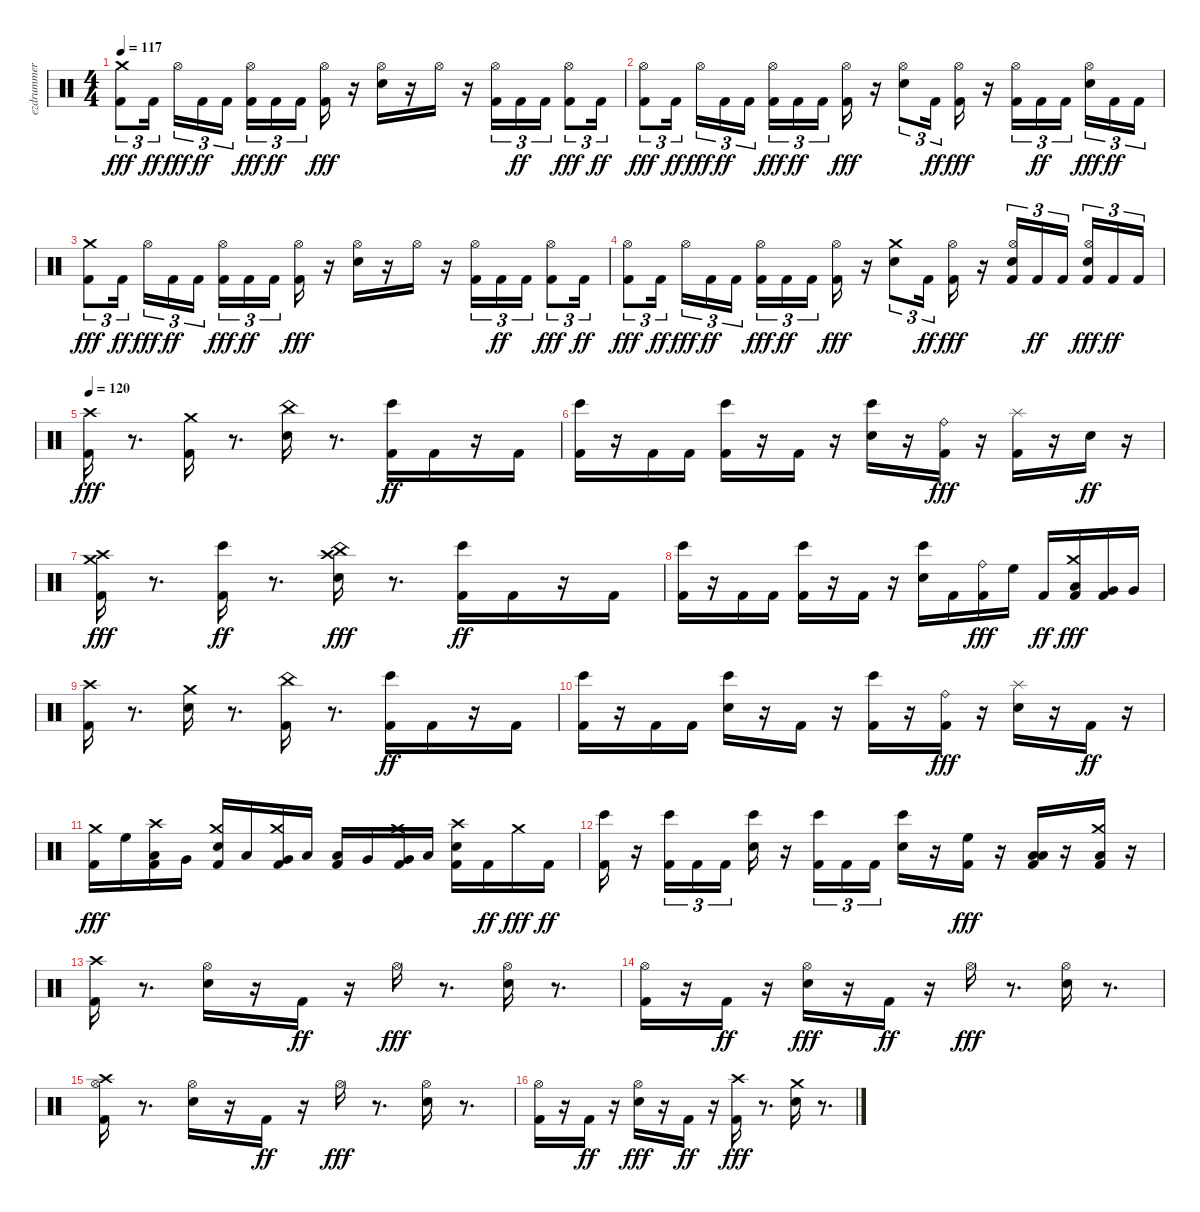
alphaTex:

\track ("ezdrummer 02" "ezdrummer ") {instrument percussion}
\staff {score}
\articulation defaults
\ts (4 4)
\tempo 117
\clef neutral
\ks c
("Kick (hit) 2" "Crash medium (hit)").8{tu (3 2) dy fff} "Kick (hit) 2".16{tu (3 2) dy ff beam splitsecondary} "Hi-Hat (open)".16{tu (3 2) dy fff} "Kick (hit) 2".16{tu (3 2) dy ff} "Kick (hit) 2".16{tu (3 2)} ("Kick (hit) 2" "Hi-Hat (open)").16{tu (3 2) dy fff} "Kick (hit) 2".16{tu (3 2) dy ff} "Kick (hit) 2".16{tu (3 2) beam splitsecondary} ("Kick (hit) 2" "Hi-Hat (open)").16{dy fff} r.16 ("Snare (hit) 2" "Hi-Hat (open)").16 r.16 "Hi-Hat (open)".16 r.16 ("Kick (hit) 2" "Hi-Hat (open)").16{tu (3 2)} "Kick (hit) 2".16{tu (3 2) dy ff} "Kick (hit) 2".16{tu (3 2)} ("Kick (hit) 2" "Hi-Hat (open)").8{tu (3 2) dy fff} "Kick (hit) 2".16{tu (3 2) dy ff} |
("Kick (hit) 2" "Hi-Hat (open)").8{tu (3 2) dy fff} "Kick (hit) 2".16{tu (3 2) dy ff beam splitsecondary} "Hi-Hat (open)".16{tu (3 2) dy fff} "Kick (hit) 2".16{tu (3 2) dy ff} "Kick (hit) 2".16{tu (3 2)} ("Kick (hit) 2" "Hi-Hat (open)").16{tu (3 2) dy fff} "Kick (hit) 2".16{tu (3 2) dy ff} "Kick (hit) 2".16{tu (3 2) beam splitsecondary} ("Kick (hit) 2" "Hi-Hat (open)").16{dy fff} r.16 ("Snare (hit) 2" "Hi-Hat (open)").8{tu (3 2)} "Kick (hit) 2".16{tu (3 2) dy ff} ("Kick (hit) 2" "Hi-Hat (open)").16{dy fff} r.16 ("Kick (hit) 2" "Hi-Hat (open)").16{tu (3 2)} "Kick (hit) 2".16{tu (3 2) dy ff} "Kick (hit) 2".16{tu (3 2) beam splitsecondary} ("Snare (hit) 2" "Hi-Hat (open)").16{tu (3 2) dy fff} "Kick (hit) 2".16{tu (3 2) dy ff} "Kick (hit) 2".16{tu (3 2)} |
("Kick (hit) 2" "Crash medium (hit)").8{tu (3 2) dy fff} "Kick (hit) 2".16{tu (3 2) dy ff beam splitsecondary} "Hi-Hat (open)".16{tu (3 2) dy fff} "Kick (hit) 2".16{tu (3 2) dy ff} "Kick (hit) 2".16{tu (3 2)} ("Kick (hit) 2" "Hi-Hat (open)").16{tu (3 2) dy fff} "Kick (hit) 2".16{tu (3 2) dy ff} "Kick (hit) 2".16{tu (3 2) beam splitsecondary} ("Kick (hit) 2" "Hi-Hat (open)").16{dy fff} r.16 ("Snare (hit) 2" "Hi-Hat (open)").16 r.16 "Hi-Hat (open)".16 r.16 ("Kick (hit) 2" "Hi-Hat (open)").16{tu (3 2)} "Kick (hit) 2".16{tu (3 2) dy ff} "Kick (hit) 2".16{tu (3 2)} ("Kick (hit) 2" "Hi-Hat (open)").8{tu (3 2) dy fff} "Kick (hit) 2".16{tu (3 2) dy ff} |
("Kick (hit) 2" "Hi-Hat (open)").8{tu (3 2) dy fff} "Kick (hit) 2".16{tu (3 2) dy ff beam splitsecondary} "Hi-Hat (open)".16{tu (3 2) dy fff} "Kick (hit) 2".16{tu (3 2) dy ff} "Kick (hit) 2".16{tu (3 2)} ("Kick (hit) 2" "Hi-Hat (open)").16{tu (3 2) dy fff} "Kick (hit) 2".16{tu (3 2) dy ff} "Kick (hit) 2".16{tu (3 2) beam splitsecondary} ("Kick (hit) 2" "Hi-Hat (open)").16{dy fff} r.16 ("Snare (hit) 2" "Crash medium (hit)").8{tu (3 2)} "Kick (hit) 2".16{tu (3 2) dy ff} ("Kick (hit) 2" "Hi-Hat (open)").16{dy fff} r.16 ("Kick (hit) 2" "Snare (hit) 2" "Hi-Hat (open)").16{tu (3 2)} "Kick (hit) 2".16{tu (3 2) dy ff} "Kick (hit) 2".16{tu (3 2) beam splitsecondary} ("Kick (hit) 2" "Snare (hit) 2" "Hi-Hat (open)").16{tu (3 2) dy fff} "Kick (hit) 2".16{tu (3 2) dy ff} "Kick (hit) 2".16{tu (3 2)} |
\tempo 120
("Kick (hit) 2" "Crash high (hit)").16{dy fff} r.8{d} ("Kick (hit) 2" "Crash medium (hit)").16 r.8{d} ("Snare (hit) 2" "China (hit)").16 r.8{d} ("Kick (hit) 2" "Bongo High (hit)").16{dy ff} "Kick (hit) 2".16 r.16 "Kick (hit) 2".16 |
("Kick (hit) 2" "Bongo High (hit)").16 r.16 "Kick (hit) 2".16 "Kick (hit) 2".16 ("Kick (hit) 2" "Bongo High (hit)").16 r.16 "Kick (hit) 2".16 r.16 ("Snare (hit) 2" "Bongo High (hit)").16 r.16 ("Kick (hit) 2" "Ride (bell)").16{dy fff} r.16 ("Kick (hit) 2" "Splash (hit)").16 r.16 "Snare (hit) 2".16{dy ff} r.16 |
("Kick (hit) 2" "Crash high (hit)" "Crash medium (hit)").16{dy fff} r.8{d} ("Kick (hit) 2" "Bongo High (hit)").16{dy ff} r.8{d} ("Snare (hit) 2" "Crash high (hit)" "China (hit)").16{dy fff} r.8{d} ("Kick (hit) 2" "Bongo High (hit)").16{dy ff} "Kick (hit) 2".16 r.16 "Kick (hit) 2".16 |
("Kick (hit) 2" "Bongo High (hit)").16 r.16 "Kick (hit) 2".16 "Kick (hit) 2".16 ("Kick (hit) 2" "Bongo High (hit)").16 r.16 "Kick (hit) 2".16 r.16 ("Snare (hit) 2" "Bongo High (hit)").16 "Kick (hit) 2".16 ("Kick (hit) 2" "Ride (bell)").16{dy fff} "High Floor Tom (hit)".16 "Kick (hit) 2".16{dy ff} ("Kick (hit) 2" "Low Tom (hit)" "Crash medium (hit)").16{dy fff} ("Kick (hit) 2" "Very Low Tom (hit)").16 "Very Low Tom (hit)".16 |
("Kick (hit) 2" "Crash high (hit)").16 r.8{d} ("Snare (hit) 2" "Crash medium (hit)").16 r.8{d} ("Kick (hit) 2" "China (hit)").16 r.8{d} ("Kick (hit) 2" "Bongo High (hit)").16{dy ff} "Kick (hit) 2".16 r.16 "Kick (hit) 2".16 |
("Kick (hit) 2" "Bongo High (hit)").16 r.16 "Kick (hit) 2".16 "Kick (hit) 2".16 ("Snare (hit) 2" "Bongo High (hit)").16 r.16 "Kick (hit) 2".16 r.16 ("Kick (hit) 2" "Bongo High (hit)").16 r.16 ("Kick (hit) 2" "Ride (bell)").16{dy fff} r.16 ("Snare (hit) 2" "Splash (hit)").16 r.16 "Kick (hit) 2".16{dy ff} r.16 |
("Kick (hit) 2" "Crash medium (hit)").16{dy fff} "High Floor Tom (hit)".16 ("Kick (hit) 2" "Low Tom (hit)" "Crash high (hit)").16 "Very Low Tom (hit)".16 ("Kick (hit) 2" "Snare (hit) 2" "Crash medium (hit)").16 "Low Tom (hit)".16 ("Kick (hit) 2" "Very Low Tom (hit)" "Crash medium (hit)").16 "Low Floor Tom (hit)".16 ("Kick (hit) 2" "Low Floor Tom (hit)").16 "Very Low Tom (hit)".16 ("Kick (hit) 2" "Very Low Tom (hit)" "Crash medium (hit)").16 "Low Floor Tom (hit)".16 ("Kick (hit) 2" "Snare (hit) 2" "Crash high (hit)").16 "Kick (hit) 2".16{dy ff} "Crash medium (hit)".16{dy fff} "Kick (hit) 2".16{dy ff} |
("Kick (hit) 2" "Bongo High (hit)").16 r.16 ("Kick (hit) 2" "Bongo High (hit)").16{tu (3 2)} "Kick (hit) 2".16{tu (3 2)} "Kick (hit) 2".16{tu (3 2)} ("Snare (hit) 2" "Bongo High (hit)").16 r.16 ("Kick (hit) 2" "Bongo High (hit)").16{tu (3 2)} "Kick (hit) 2".16{tu (3 2)} "Kick (hit) 2".16{tu (3 2)} ("Snare (hit) 2" "Bongo High (hit)").16 r.16 ("Kick (hit) 2" "High Floor Tom (hit)").16{dy fff} r.16 ("Kick (hit) 2" "Low Floor Tom (hit)" "Low Tom (hit)").16 r.16 ("Kick (hit) 2" "Low Tom (hit)" "Crash medium (hit)").16 r.16 |
("Kick (hit) 2" "Crash high (hit)").16 r.8{d} ("Snare (hit) 2" "Hi-Hat (open)").16 r.16 "Kick (hit) 2".16{dy ff} r.16 "Hi-Hat (open)".16{dy fff} r.8{d} ("Snare (hit) 2" "Hi-Hat (open)").16 r.8{d} |
("Kick (hit) 2" "Hi-Hat (open)").16 r.16 "Kick (hit) 2".16{dy ff} r.16 ("Snare (hit) 2" "Hi-Hat (open)").16{dy fff} r.16 "Kick (hit) 2".16{dy ff} r.16 "Hi-Hat (open)".16{dy fff} r.8{d} ("Snare (hit) 2" "Hi-Hat (open)").16 r.8{d} |
("Kick (hit) 2" "Hi-Hat (open)" "Crash high (hit)").16 r.8{d} ("Snare (hit) 2" "Hi-Hat (open)").16 r.16 "Kick (hit) 2".16{dy ff} r.16 "Hi-Hat (open)".16{dy fff} r.8{d} ("Snare (hit) 2" "Hi-Hat (open)").16 r.8{d} |
("Kick (hit) 2" "Hi-Hat (open)").16 r.16 "Kick (hit) 2".16{dy ff} r.16 ("Snare (hit) 2" "Hi-Hat (open)").16{dy fff} r.16 "Kick (hit) 2".16{dy ff} r.16 ("Kick (hit) 2" "Crash high (hit)").16{dy fff} r.8{d} ("Snare (hit) 2" "Crash medium (hit)").16 r.8{d}
